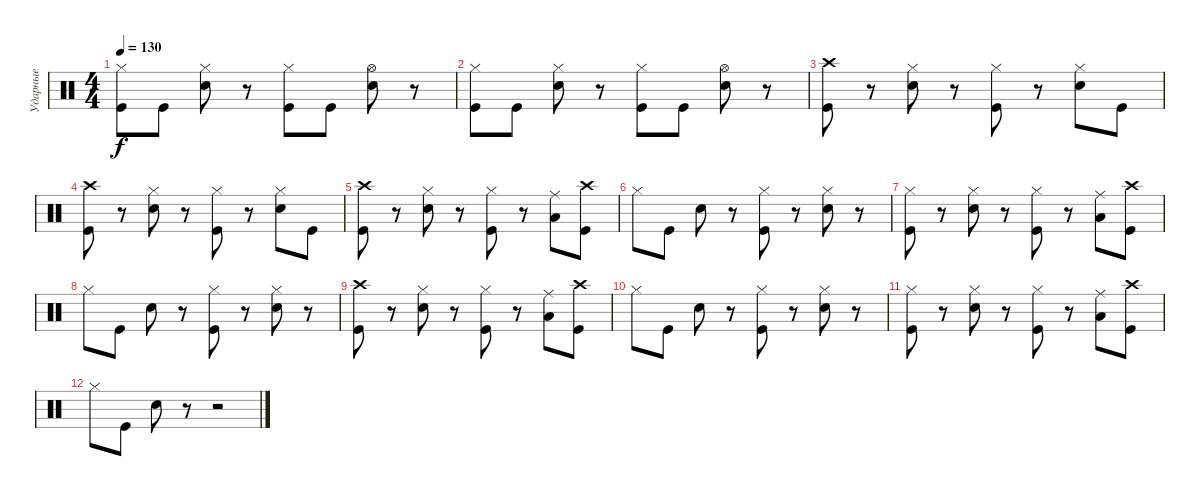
\track ("Ударные" "Ударные") {instrument percussion}
\staff {score}
\articulation defaults
\ts (4 4)
\tempo 130
\clef neutral
\ks c
("Hi-Hat (closed)" "Kick (hit)").8{dy f} "Kick (hit)".8 ("Hi-Hat (closed)" "Snare (hit) 2").8 r.8 ("Hi-Hat (closed)" "Kick (hit)").8 "Kick (hit)".8 ("Hi-Hat (open)" "Snare (hit) 2").8 r.8 |
("Hi-Hat (closed)" "Kick (hit)").8 "Kick (hit)".8 ("Hi-Hat (closed)" "Snare (hit) 2").8 r.8 ("Hi-Hat (closed)" "Kick (hit)").8 "Kick (hit)".8 ("Hi-Hat (open)" "Snare (hit) 2").8 r.8 |
("Crash high (hit)" "Kick (hit)").8 r.8 ("Hi-Hat (closed)" "Snare (hit) 2").8 r.8 ("Hi-Hat (closed)" "Kick (hit)").8 r.8 ("Hi-Hat (closed)" "Snare (hit) 2").8 "Kick (hit)".8 |
("Crash high (hit)" "Kick (hit)").8 r.8 ("Hi-Hat (closed)" "Snare (hit) 2").8 r.8 ("Hi-Hat (closed)" "Kick (hit)").8 r.8 ("Hi-Hat (closed)" "Snare (hit) 2").8 "Kick (hit)".8 |
("Crash high (hit)" "Kick (hit)").8 r.8 ("Hi-Hat (closed)" "Snare (hit) 2").8 r.8 ("Hi-Hat (closed)" "Kick (hit)").8 r.8 ("Ride (middle)" "Low Tom (hit)").8 ("Crash high (hit)" "Kick (hit)").8 |
"Hi-Hat (closed)".8 "Kick (hit)".8 "Snare (hit) 2".8 r.8 ("Hi-Hat (closed)" "Kick (hit)").8 r.8 ("Hi-Hat (closed)" "Snare (hit) 2").8 r.8 |
("Hi-Hat (closed)" "Kick (hit)").8 r.8 ("Hi-Hat (closed)" "Snare (hit) 2").8 r.8 ("Hi-Hat (closed)" "Kick (hit)").8 r.8 ("Ride (middle)" "Low Tom (hit)").8 ("Crash high (hit)" "Kick (hit)").8 |
"Hi-Hat (closed)".8 "Kick (hit)".8 "Snare (hit) 2".8 r.8 ("Hi-Hat (closed)" "Kick (hit)").8 r.8 ("Hi-Hat (closed)" "Snare (hit) 2").8 r.8 |
("Crash high (hit)" "Kick (hit)").8 r.8 ("Hi-Hat (closed)" "Snare (hit) 2").8 r.8 ("Hi-Hat (closed)" "Kick (hit)").8 r.8 ("Ride (middle)" "Low Tom (hit)").8 ("Crash high (hit)" "Kick (hit)").8 |
"Hi-Hat (closed)".8 "Kick (hit)".8 "Snare (hit) 2".8 r.8 ("Hi-Hat (closed)" "Kick (hit)").8 r.8 ("Hi-Hat (closed)" "Snare (hit) 2").8 r.8 |
("Hi-Hat (closed)" "Kick (hit)").8 r.8 ("Hi-Hat (closed)" "Snare (hit) 2").8 r.8 ("Hi-Hat (closed)" "Kick (hit)").8 r.8 ("Ride (middle)" "Low Tom (hit)").8 ("Crash high (hit)" "Kick (hit)").8 |
"Hi-Hat (closed)".8 "Kick (hit)".8 "Snare (hit) 2".8 r.8 r.2
